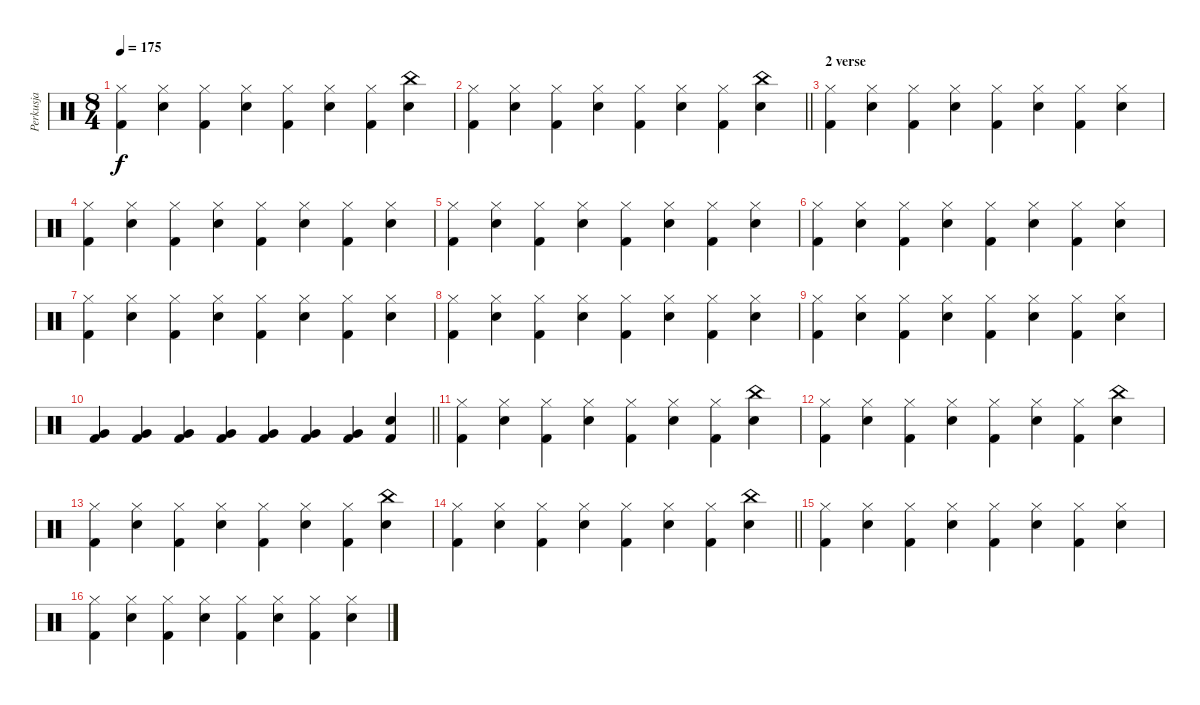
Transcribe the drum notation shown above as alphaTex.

\track ("Perkusja" "Perkusja") {instrument percussion}
\staff {score}
\articulation defaults
\ts (8 4)
\tempo 175
\clef neutral
\ks c
("Hi-Hat (closed)" "Kick (hit) 2").4{dy f} ("Hi-Hat (closed)" "Electric Snare (hit)").4 ("Hi-Hat (closed)" "Kick (hit) 2").4 ("Hi-Hat (closed)" "Electric Snare (hit)").4 ("Hi-Hat (closed)" "Kick (hit) 2").4 ("Hi-Hat (closed)" "Electric Snare (hit)").4 ("Hi-Hat (closed)" "Kick (hit) 2").4 ("China (hit)" "Electric Snare (hit)").4 |
\barLineRight lightlight
("Hi-Hat (closed)" "Kick (hit) 2").4 ("Hi-Hat (closed)" "Electric Snare (hit)").4 ("Hi-Hat (closed)" "Kick (hit) 2").4 ("Hi-Hat (closed)" "Electric Snare (hit)").4 ("Hi-Hat (closed)" "Kick (hit) 2").4 ("Hi-Hat (closed)" "Electric Snare (hit)").4 ("Hi-Hat (closed)" "Kick (hit) 2").4 ("China (hit)" "Electric Snare (hit)").4 |
\section ("" "2 verse")
("Hi-Hat (closed)" "Kick (hit) 2").4 ("Hi-Hat (closed)" "Electric Snare (hit)").4 ("Hi-Hat (closed)" "Kick (hit) 2").4 ("Hi-Hat (closed)" "Electric Snare (hit)").4 ("Hi-Hat (closed)" "Kick (hit) 2").4 ("Hi-Hat (closed)" "Electric Snare (hit)").4 ("Hi-Hat (closed)" "Kick (hit) 2").4 ("Hi-Hat (closed)" "Electric Snare (hit)").4 |
("Hi-Hat (closed)" "Kick (hit) 2").4 ("Hi-Hat (closed)" "Electric Snare (hit)").4 ("Hi-Hat (closed)" "Kick (hit) 2").4 ("Hi-Hat (closed)" "Electric Snare (hit)").4 ("Hi-Hat (closed)" "Kick (hit) 2").4 ("Hi-Hat (closed)" "Electric Snare (hit)").4 ("Hi-Hat (closed)" "Kick (hit) 2").4 ("Hi-Hat (closed)" "Electric Snare (hit)").4 |
("Hi-Hat (closed)" "Kick (hit) 2").4 ("Hi-Hat (closed)" "Electric Snare (hit)").4 ("Hi-Hat (closed)" "Kick (hit) 2").4 ("Hi-Hat (closed)" "Electric Snare (hit)").4 ("Hi-Hat (closed)" "Kick (hit) 2").4 ("Hi-Hat (closed)" "Electric Snare (hit)").4 ("Hi-Hat (closed)" "Kick (hit) 2").4 ("Hi-Hat (closed)" "Electric Snare (hit)").4 |
("Hi-Hat (closed)" "Kick (hit) 2").4 ("Hi-Hat (closed)" "Electric Snare (hit)").4 ("Hi-Hat (closed)" "Kick (hit) 2").4 ("Hi-Hat (closed)" "Electric Snare (hit)").4 ("Hi-Hat (closed)" "Kick (hit) 2").4 ("Hi-Hat (closed)" "Electric Snare (hit)").4 ("Hi-Hat (closed)" "Kick (hit) 2").4 ("Hi-Hat (closed)" "Electric Snare (hit)").4 |
("Hi-Hat (closed)" "Kick (hit) 2").4 ("Hi-Hat (closed)" "Electric Snare (hit)").4 ("Hi-Hat (closed)" "Kick (hit) 2").4 ("Hi-Hat (closed)" "Electric Snare (hit)").4 ("Hi-Hat (closed)" "Kick (hit) 2").4 ("Hi-Hat (closed)" "Electric Snare (hit)").4 ("Hi-Hat (closed)" "Kick (hit) 2").4 ("Hi-Hat (closed)" "Electric Snare (hit)").4 |
("Hi-Hat (closed)" "Kick (hit) 2").4 ("Hi-Hat (closed)" "Electric Snare (hit)").4 ("Hi-Hat (closed)" "Kick (hit) 2").4 ("Hi-Hat (closed)" "Electric Snare (hit)").4 ("Hi-Hat (closed)" "Kick (hit) 2").4 ("Hi-Hat (closed)" "Electric Snare (hit)").4 ("Hi-Hat (closed)" "Kick (hit) 2").4 ("Hi-Hat (closed)" "Electric Snare (hit)").4 |
("Hi-Hat (closed)" "Kick (hit) 2").4 ("Hi-Hat (closed)" "Electric Snare (hit)").4 ("Hi-Hat (closed)" "Kick (hit) 2").4 ("Hi-Hat (closed)" "Electric Snare (hit)").4 ("Hi-Hat (closed)" "Kick (hit) 2").4 ("Hi-Hat (closed)" "Electric Snare (hit)").4 ("Hi-Hat (closed)" "Kick (hit) 2").4 ("Hi-Hat (closed)" "Electric Snare (hit)").4 |
\barLineRight lightlight
("Very Low Tom (hit)" "Kick (hit) 2").4 ("Very Low Tom (hit)" "Kick (hit) 2").4 ("Very Low Tom (hit)" "Kick (hit) 2").4 ("Very Low Tom (hit)" "Kick (hit) 2").4 ("Very Low Tom (hit)" "Kick (hit) 2").4 ("Very Low Tom (hit)" "Kick (hit) 2").4 ("Very Low Tom (hit)" "Kick (hit) 2").4 ("Electric Snare (hit)" "Kick (hit) 2").4 |
("Hi-Hat (closed)" "Kick (hit) 2").4 ("Hi-Hat (closed)" "Electric Snare (hit)").4 ("Hi-Hat (closed)" "Kick (hit) 2").4 ("Hi-Hat (closed)" "Electric Snare (hit)").4 ("Hi-Hat (closed)" "Kick (hit) 2").4 ("Hi-Hat (closed)" "Electric Snare (hit)").4 ("Hi-Hat (closed)" "Kick (hit) 2").4 ("China (hit)" "Electric Snare (hit)").4 |
("Hi-Hat (closed)" "Kick (hit) 2").4 ("Hi-Hat (closed)" "Electric Snare (hit)").4 ("Hi-Hat (closed)" "Kick (hit) 2").4 ("Hi-Hat (closed)" "Electric Snare (hit)").4 ("Hi-Hat (closed)" "Kick (hit) 2").4 ("Hi-Hat (closed)" "Electric Snare (hit)").4 ("Hi-Hat (closed)" "Kick (hit) 2").4 ("China (hit)" "Electric Snare (hit)").4 |
("Hi-Hat (closed)" "Kick (hit) 2").4 ("Hi-Hat (closed)" "Electric Snare (hit)").4 ("Hi-Hat (closed)" "Kick (hit) 2").4 ("Hi-Hat (closed)" "Electric Snare (hit)").4 ("Hi-Hat (closed)" "Kick (hit) 2").4 ("Hi-Hat (closed)" "Electric Snare (hit)").4 ("Hi-Hat (closed)" "Kick (hit) 2").4 ("China (hit)" "Electric Snare (hit)").4 |
\barLineRight lightlight
("Hi-Hat (closed)" "Kick (hit) 2").4 ("Hi-Hat (closed)" "Electric Snare (hit)").4 ("Hi-Hat (closed)" "Kick (hit) 2").4 ("Hi-Hat (closed)" "Electric Snare (hit)").4 ("Hi-Hat (closed)" "Kick (hit) 2").4 ("Hi-Hat (closed)" "Electric Snare (hit)").4 ("Hi-Hat (closed)" "Kick (hit) 2").4 ("China (hit)" "Electric Snare (hit)").4 |
("Hi-Hat (closed)" "Kick (hit) 2").4 ("Hi-Hat (closed)" "Electric Snare (hit)").4 ("Hi-Hat (closed)" "Kick (hit) 2").4 ("Hi-Hat (closed)" "Electric Snare (hit)").4 ("Hi-Hat (closed)" "Kick (hit) 2").4 ("Hi-Hat (closed)" "Electric Snare (hit)").4 ("Hi-Hat (closed)" "Kick (hit) 2").4 ("Hi-Hat (closed)" "Electric Snare (hit)").4 |
("Hi-Hat (closed)" "Kick (hit) 2").4 ("Hi-Hat (closed)" "Electric Snare (hit)").4 ("Hi-Hat (closed)" "Kick (hit) 2").4 ("Hi-Hat (closed)" "Electric Snare (hit)").4 ("Hi-Hat (closed)" "Kick (hit) 2").4 ("Hi-Hat (closed)" "Electric Snare (hit)").4 ("Hi-Hat (closed)" "Kick (hit) 2").4 ("Hi-Hat (closed)" "Electric Snare (hit)").4
